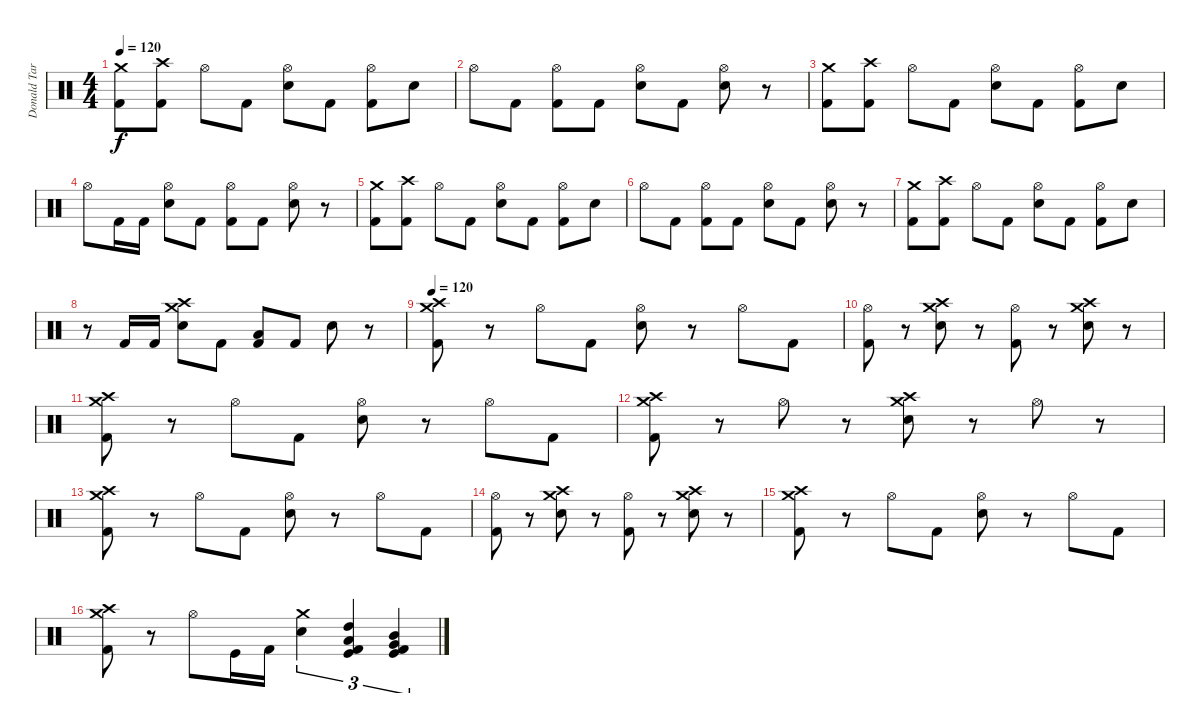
\track ("Donald Tardy (Drums)" "Donald Tar") {instrument percussion}
\staff {score}
\articulation defaults
\ts (4 4)
\tempo 120
\clef neutral
\ks c
("Crash medium (hit)" "Kick (hit) 2").8{dy f} ("Crash high (hit)" "Kick (hit) 2").8 "Hi-Hat (open)".8 "Kick (hit) 2".8 ("Electric Snare (hit)" "Hi-Hat (open)").8 "Kick (hit) 2".8 ("Kick (hit) 2" "Hi-Hat (open)").8 "Electric Snare (hit)".8 |
"Hi-Hat (open)".8 "Kick (hit) 2".8 ("Kick (hit) 2" "Hi-Hat (open)").8 "Kick (hit) 2".8 ("Electric Snare (hit)" "Hi-Hat (open)").8 "Kick (hit) 2".8 ("Electric Snare (hit)" "Hi-Hat (open)").8 r.8 |
("Kick (hit) 2" "Crash medium (hit)").8 ("Kick (hit) 2" "Crash high (hit)").8 "Hi-Hat (open)".8 "Kick (hit) 2".8 ("Electric Snare (hit)" "Hi-Hat (open)").8 "Kick (hit) 2".8 ("Kick (hit) 2" "Hi-Hat (open)").8 "Electric Snare (hit)".8 |
"Hi-Hat (open)".8 "Kick (hit) 2".16 "Kick (hit) 2".16 ("Electric Snare (hit)" "Hi-Hat (open)").8 "Kick (hit) 2".8 ("Kick (hit) 2" "Hi-Hat (open)").8 "Kick (hit) 2".8 ("Electric Snare (hit)" "Hi-Hat (open)").8 r.8 |
("Crash medium (hit)" "Kick (hit) 2").8 ("Crash high (hit)" "Kick (hit) 2").8 "Hi-Hat (open)".8 "Kick (hit) 2".8 ("Electric Snare (hit)" "Hi-Hat (open)").8 "Kick (hit) 2".8 ("Kick (hit) 2" "Hi-Hat (open)").8 "Electric Snare (hit)".8 |
"Hi-Hat (open)".8 "Kick (hit) 2".8 ("Kick (hit) 2" "Hi-Hat (open)").8 "Kick (hit) 2".8 ("Electric Snare (hit)" "Hi-Hat (open)").8 "Kick (hit) 2".8 ("Electric Snare (hit)" "Hi-Hat (open)").8 r.8 |
("Crash medium (hit)" "Kick (hit) 2").8 ("Crash high (hit)" "Kick (hit) 2").8 "Hi-Hat (open)".8 "Kick (hit) 2".8 ("Electric Snare (hit)" "Hi-Hat (open)").8 "Kick (hit) 2".8 ("Kick (hit) 2" "Hi-Hat (open)").8 "Electric Snare (hit)".8 |
r.8 "Kick (hit) 2".16 "Kick (hit) 2".16 ("Electric Snare (hit)" "Crash medium (hit)" "Crash high (hit)").8 "Kick (hit) 2".8 ("Kick (hit) 2" "Low Floor Tom (hit)").8 "Kick (hit) 2".8 "Electric Snare (hit)".8 r.8 |
\tempo 120
("Kick (hit) 2" "Crash medium (hit)" "Crash high (hit)").8 r.8 "Hi-Hat (open)".8 "Kick (hit) 2".8 ("Electric Snare (hit)" "Hi-Hat (open)").8 r.8 "Hi-Hat (open)".8 "Kick (hit) 2".8 |
("Kick (hit) 2" "Hi-Hat (open)").8 r.8 ("Electric Snare (hit)" "Crash medium (hit)" "Crash high (hit)").8 r.8 ("Kick (hit) 2" "Hi-Hat (open)").8 r.8 ("Electric Snare (hit)" "Crash medium (hit)" "Crash high (hit)").8 r.8 |
("Kick (hit) 2" "Crash medium (hit)" "Crash high (hit)").8 r.8 "Hi-Hat (open)".8 "Kick (hit) 2".8 ("Electric Snare (hit)" "Hi-Hat (open)").8 r.8 "Hi-Hat (open)".8 "Kick (hit) 2".8 |
("Crash medium (hit)" "Crash high (hit)" "Kick (hit) 2").8 r.8 "Hi-Hat (open)".8 r.8 ("Electric Snare (hit)" "Crash medium (hit)" "Crash high (hit)").8 r.8 "Hi-Hat (open)".8 r.8 |
("Kick (hit) 2" "Crash medium (hit)" "Crash high (hit)").8 r.8 "Hi-Hat (open)".8 "Kick (hit) 2".8 ("Electric Snare (hit)" "Hi-Hat (open)").8 r.8 "Hi-Hat (open)".8 "Kick (hit) 2".8 |
("Kick (hit) 2" "Hi-Hat (open)").8 r.8 ("Electric Snare (hit)" "Crash medium (hit)" "Crash high (hit)").8 r.8 ("Kick (hit) 2" "Hi-Hat (open)").8 r.8 ("Electric Snare (hit)" "Crash medium (hit)" "Crash high (hit)").8 r.8 |
("Kick (hit) 2" "Crash medium (hit)" "Crash high (hit)").8 r.8 "Hi-Hat (open)".8 "Kick (hit) 2".8 ("Electric Snare (hit)" "Hi-Hat (open)").8 r.8 "Hi-Hat (open)".8 "Kick (hit) 2".8 |
("Crash medium (hit)" "Crash high (hit)" "Kick (hit) 2").8 r.8 "Hi-Hat (open)".8 "Kick (hit)".16 "Kick (hit) 2".16 ("Electric Snare (hit)" "Crash medium (hit)").4{tu (3 2)} ("High Tom (hit)" "Low Floor Tom (hit)" "Kick (hit) 2" "Kick (hit)").4{tu (3 2)} ("Mid Tom (hit)" "Very Low Tom (hit)" "Kick (hit) 2" "Kick (hit)").4{tu (3 2)}
